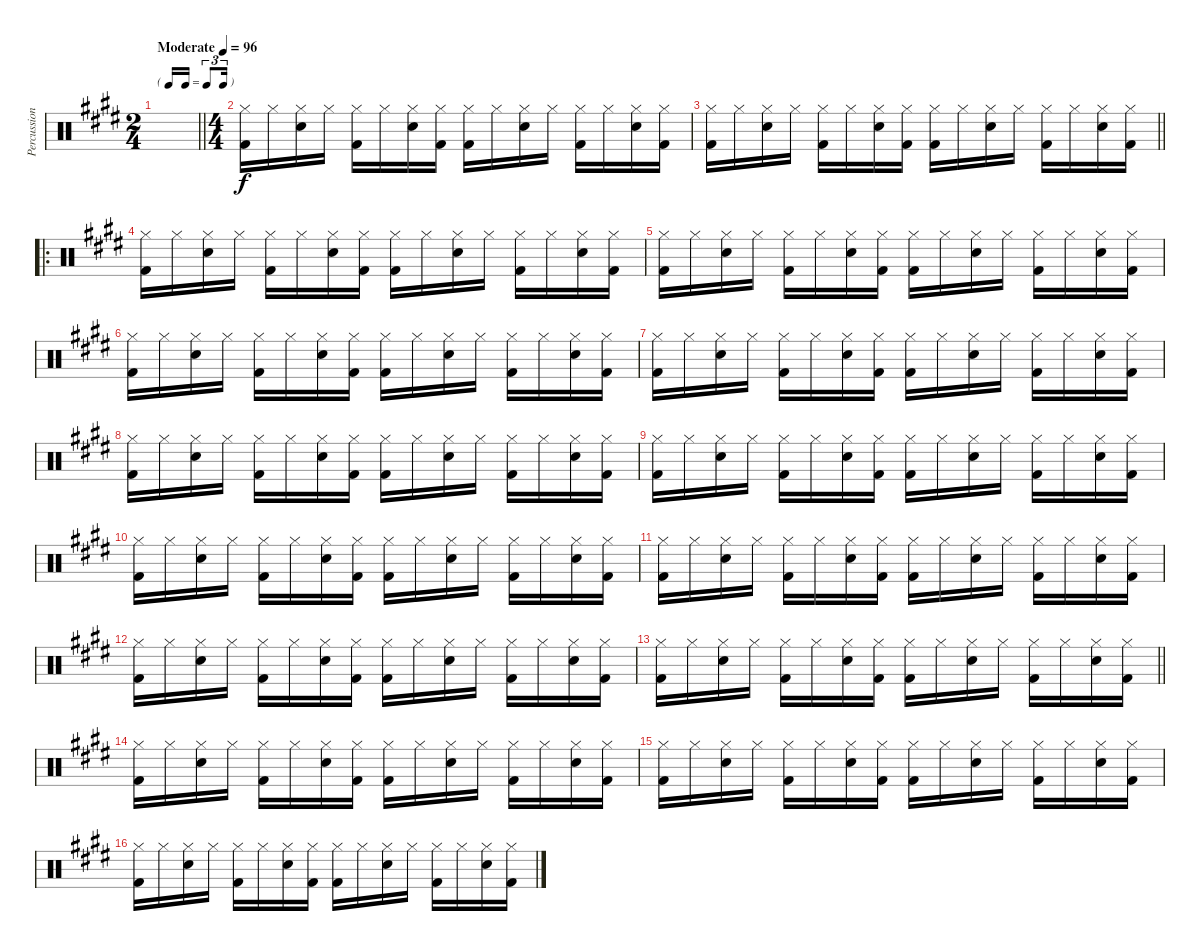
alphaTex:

\track ("Percussion" "Percussion") {instrument percussion}
\staff {score}
\articulation defaults
\ts (2 4)
\tf triplet16th
\tempo (96 "Moderate")
\clef neutral
\barLineRight lightlight
\ks e
|
\ts (4 4)
("Hi-Hat (closed)" "Kick (hit) 2").16 "Hi-Hat (closed)".16 ("Hi-Hat (closed)" "Snare (hit) 2").16 "Hi-Hat (closed)".16 ("Hi-Hat (closed)" "Kick (hit) 2").16 "Hi-Hat (closed)".16 ("Hi-Hat (closed)" "Snare (hit) 2").16 ("Hi-Hat (closed)" "Kick (hit) 2").16 ("Hi-Hat (closed)" "Kick (hit) 2").16 "Hi-Hat (closed)".16 ("Hi-Hat (closed)" "Snare (hit) 2").16 "Hi-Hat (closed)".16 ("Hi-Hat (closed)" "Kick (hit) 2").16 "Hi-Hat (closed)".16 ("Hi-Hat (closed)" "Snare (hit) 2").16 ("Hi-Hat (closed)" "Kick (hit) 2").16 |
\barLineRight lightlight
("Hi-Hat (closed)" "Kick (hit) 2").16 "Hi-Hat (closed)".16 ("Hi-Hat (closed)" "Snare (hit) 2").16 "Hi-Hat (closed)".16 ("Hi-Hat (closed)" "Kick (hit) 2").16 "Hi-Hat (closed)".16 ("Hi-Hat (closed)" "Snare (hit) 2").16 ("Hi-Hat (closed)" "Kick (hit) 2").16 ("Hi-Hat (closed)" "Kick (hit) 2").16 "Hi-Hat (closed)".16 ("Hi-Hat (closed)" "Snare (hit) 2").16 "Hi-Hat (closed)".16 ("Hi-Hat (closed)" "Kick (hit) 2").16 "Hi-Hat (closed)".16 ("Hi-Hat (closed)" "Snare (hit) 2").16 ("Hi-Hat (closed)" "Kick (hit) 2").16 |
\ro
("Hi-Hat (closed)" "Kick (hit) 2").16 "Hi-Hat (closed)".16 ("Hi-Hat (closed)" "Snare (hit) 2").16 "Hi-Hat (closed)".16 ("Hi-Hat (closed)" "Kick (hit) 2").16 "Hi-Hat (closed)".16 ("Hi-Hat (closed)" "Snare (hit) 2").16 ("Hi-Hat (closed)" "Kick (hit) 2").16 ("Hi-Hat (closed)" "Kick (hit) 2").16 "Hi-Hat (closed)".16 ("Hi-Hat (closed)" "Snare (hit) 2").16 "Hi-Hat (closed)".16 ("Hi-Hat (closed)" "Kick (hit) 2").16 "Hi-Hat (closed)".16 ("Hi-Hat (closed)" "Snare (hit) 2").16 ("Hi-Hat (closed)" "Kick (hit) 2").16 |
("Hi-Hat (closed)" "Kick (hit) 2").16 "Hi-Hat (closed)".16 ("Hi-Hat (closed)" "Snare (hit) 2").16 "Hi-Hat (closed)".16 ("Hi-Hat (closed)" "Kick (hit) 2").16 "Hi-Hat (closed)".16 ("Hi-Hat (closed)" "Snare (hit) 2").16 ("Hi-Hat (closed)" "Kick (hit) 2").16 ("Hi-Hat (closed)" "Kick (hit) 2").16 "Hi-Hat (closed)".16 ("Hi-Hat (closed)" "Snare (hit) 2").16 "Hi-Hat (closed)".16 ("Hi-Hat (closed)" "Kick (hit) 2").16 "Hi-Hat (closed)".16 ("Hi-Hat (closed)" "Snare (hit) 2").16 ("Hi-Hat (closed)" "Kick (hit) 2").16 |
("Hi-Hat (closed)" "Kick (hit) 2").16 "Hi-Hat (closed)".16 ("Hi-Hat (closed)" "Snare (hit) 2").16 "Hi-Hat (closed)".16 ("Hi-Hat (closed)" "Kick (hit) 2").16 "Hi-Hat (closed)".16 ("Hi-Hat (closed)" "Snare (hit) 2").16 ("Hi-Hat (closed)" "Kick (hit) 2").16 ("Hi-Hat (closed)" "Kick (hit) 2").16 "Hi-Hat (closed)".16 ("Hi-Hat (closed)" "Snare (hit) 2").16 "Hi-Hat (closed)".16 ("Hi-Hat (closed)" "Kick (hit) 2").16 "Hi-Hat (closed)".16 ("Hi-Hat (closed)" "Snare (hit) 2").16 ("Hi-Hat (closed)" "Kick (hit) 2").16 |
("Hi-Hat (closed)" "Kick (hit) 2").16 "Hi-Hat (closed)".16 ("Hi-Hat (closed)" "Snare (hit) 2").16 "Hi-Hat (closed)".16 ("Hi-Hat (closed)" "Kick (hit) 2").16 "Hi-Hat (closed)".16 ("Hi-Hat (closed)" "Snare (hit) 2").16 ("Hi-Hat (closed)" "Kick (hit) 2").16 ("Hi-Hat (closed)" "Kick (hit) 2").16 "Hi-Hat (closed)".16 ("Hi-Hat (closed)" "Snare (hit) 2").16 "Hi-Hat (closed)".16 ("Hi-Hat (closed)" "Kick (hit) 2").16 "Hi-Hat (closed)".16 ("Hi-Hat (closed)" "Snare (hit) 2").16 ("Hi-Hat (closed)" "Kick (hit) 2").16 |
("Hi-Hat (closed)" "Kick (hit) 2").16 "Hi-Hat (closed)".16 ("Hi-Hat (closed)" "Snare (hit) 2").16 "Hi-Hat (closed)".16 ("Hi-Hat (closed)" "Kick (hit) 2").16 "Hi-Hat (closed)".16 ("Hi-Hat (closed)" "Snare (hit) 2").16 ("Hi-Hat (closed)" "Kick (hit) 2").16 ("Hi-Hat (closed)" "Kick (hit) 2").16 "Hi-Hat (closed)".16 ("Hi-Hat (closed)" "Snare (hit) 2").16 "Hi-Hat (closed)".16 ("Hi-Hat (closed)" "Kick (hit) 2").16 "Hi-Hat (closed)".16 ("Hi-Hat (closed)" "Snare (hit) 2").16 ("Hi-Hat (closed)" "Kick (hit) 2").16 |
("Hi-Hat (closed)" "Kick (hit) 2").16 "Hi-Hat (closed)".16 ("Hi-Hat (closed)" "Snare (hit) 2").16 "Hi-Hat (closed)".16 ("Hi-Hat (closed)" "Kick (hit) 2").16 "Hi-Hat (closed)".16 ("Hi-Hat (closed)" "Snare (hit) 2").16 ("Hi-Hat (closed)" "Kick (hit) 2").16 ("Hi-Hat (closed)" "Kick (hit) 2").16 "Hi-Hat (closed)".16 ("Hi-Hat (closed)" "Snare (hit) 2").16 "Hi-Hat (closed)".16 ("Hi-Hat (closed)" "Kick (hit) 2").16 "Hi-Hat (closed)".16 ("Hi-Hat (closed)" "Snare (hit) 2").16 ("Hi-Hat (closed)" "Kick (hit) 2").16 |
("Hi-Hat (closed)" "Kick (hit) 2").16 "Hi-Hat (closed)".16 ("Hi-Hat (closed)" "Snare (hit) 2").16 "Hi-Hat (closed)".16 ("Hi-Hat (closed)" "Kick (hit) 2").16 "Hi-Hat (closed)".16 ("Hi-Hat (closed)" "Snare (hit) 2").16 ("Hi-Hat (closed)" "Kick (hit) 2").16 ("Hi-Hat (closed)" "Kick (hit) 2").16 "Hi-Hat (closed)".16 ("Hi-Hat (closed)" "Snare (hit) 2").16 "Hi-Hat (closed)".16 ("Hi-Hat (closed)" "Kick (hit) 2").16 "Hi-Hat (closed)".16 ("Hi-Hat (closed)" "Snare (hit) 2").16 ("Hi-Hat (closed)" "Kick (hit) 2").16 |
("Hi-Hat (closed)" "Kick (hit) 2").16 "Hi-Hat (closed)".16 ("Hi-Hat (closed)" "Snare (hit) 2").16 "Hi-Hat (closed)".16 ("Hi-Hat (closed)" "Kick (hit) 2").16 "Hi-Hat (closed)".16 ("Hi-Hat (closed)" "Snare (hit) 2").16 ("Hi-Hat (closed)" "Kick (hit) 2").16 ("Hi-Hat (closed)" "Kick (hit) 2").16 "Hi-Hat (closed)".16 ("Hi-Hat (closed)" "Snare (hit) 2").16 "Hi-Hat (closed)".16 ("Hi-Hat (closed)" "Kick (hit) 2").16 "Hi-Hat (closed)".16 ("Hi-Hat (closed)" "Snare (hit) 2").16 ("Hi-Hat (closed)" "Kick (hit) 2").16 |
("Hi-Hat (closed)" "Kick (hit) 2").16 "Hi-Hat (closed)".16 ("Hi-Hat (closed)" "Snare (hit) 2").16 "Hi-Hat (closed)".16 ("Hi-Hat (closed)" "Kick (hit) 2").16 "Hi-Hat (closed)".16 ("Hi-Hat (closed)" "Snare (hit) 2").16 ("Hi-Hat (closed)" "Kick (hit) 2").16 ("Hi-Hat (closed)" "Kick (hit) 2").16 "Hi-Hat (closed)".16 ("Hi-Hat (closed)" "Snare (hit) 2").16 "Hi-Hat (closed)".16 ("Hi-Hat (closed)" "Kick (hit) 2").16 "Hi-Hat (closed)".16 ("Hi-Hat (closed)" "Snare (hit) 2").16 ("Hi-Hat (closed)" "Kick (hit) 2").16 |
\barLineRight lightlight
("Hi-Hat (closed)" "Kick (hit) 2").16 "Hi-Hat (closed)".16 ("Hi-Hat (closed)" "Snare (hit) 2").16 "Hi-Hat (closed)".16 ("Hi-Hat (closed)" "Kick (hit) 2").16 "Hi-Hat (closed)".16 ("Hi-Hat (closed)" "Snare (hit) 2").16 ("Hi-Hat (closed)" "Kick (hit) 2").16 ("Hi-Hat (closed)" "Kick (hit) 2").16 "Hi-Hat (closed)".16 ("Hi-Hat (closed)" "Snare (hit) 2").16 "Hi-Hat (closed)".16 ("Hi-Hat (closed)" "Kick (hit) 2").16 "Hi-Hat (closed)".16 ("Hi-Hat (closed)" "Snare (hit) 2").16 ("Hi-Hat (closed)" "Kick (hit) 2").16 |
("Hi-Hat (closed)" "Kick (hit) 2").16 "Hi-Hat (closed)".16 ("Hi-Hat (closed)" "Snare (hit) 2").16 "Hi-Hat (closed)".16 ("Hi-Hat (closed)" "Kick (hit) 2").16 "Hi-Hat (closed)".16 ("Hi-Hat (closed)" "Snare (hit) 2").16 ("Hi-Hat (closed)" "Kick (hit) 2").16 ("Hi-Hat (closed)" "Kick (hit) 2").16 "Hi-Hat (closed)".16 ("Hi-Hat (closed)" "Snare (hit) 2").16 "Hi-Hat (closed)".16 ("Hi-Hat (closed)" "Kick (hit) 2").16 "Hi-Hat (closed)".16 ("Hi-Hat (closed)" "Snare (hit) 2").16 ("Hi-Hat (closed)" "Kick (hit) 2").16 |
("Hi-Hat (closed)" "Kick (hit) 2").16 "Hi-Hat (closed)".16 ("Hi-Hat (closed)" "Snare (hit) 2").16 "Hi-Hat (closed)".16 ("Hi-Hat (closed)" "Kick (hit) 2").16 "Hi-Hat (closed)".16 ("Hi-Hat (closed)" "Snare (hit) 2").16 ("Hi-Hat (closed)" "Kick (hit) 2").16 ("Hi-Hat (closed)" "Kick (hit) 2").16 "Hi-Hat (closed)".16 ("Hi-Hat (closed)" "Snare (hit) 2").16 "Hi-Hat (closed)".16 ("Hi-Hat (closed)" "Kick (hit) 2").16 "Hi-Hat (closed)".16 ("Hi-Hat (closed)" "Snare (hit) 2").16 ("Hi-Hat (closed)" "Kick (hit) 2").16 |
("Hi-Hat (closed)" "Kick (hit) 2").16 "Hi-Hat (closed)".16 ("Hi-Hat (closed)" "Snare (hit) 2").16 "Hi-Hat (closed)".16 ("Hi-Hat (closed)" "Kick (hit) 2").16 "Hi-Hat (closed)".16 ("Hi-Hat (closed)" "Snare (hit) 2").16 ("Hi-Hat (closed)" "Kick (hit) 2").16 ("Hi-Hat (closed)" "Kick (hit) 2").16 "Hi-Hat (closed)".16 ("Hi-Hat (closed)" "Snare (hit) 2").16 "Hi-Hat (closed)".16 ("Hi-Hat (closed)" "Kick (hit) 2").16 "Hi-Hat (closed)".16 ("Hi-Hat (closed)" "Snare (hit) 2").16 ("Hi-Hat (closed)" "Kick (hit) 2").16
